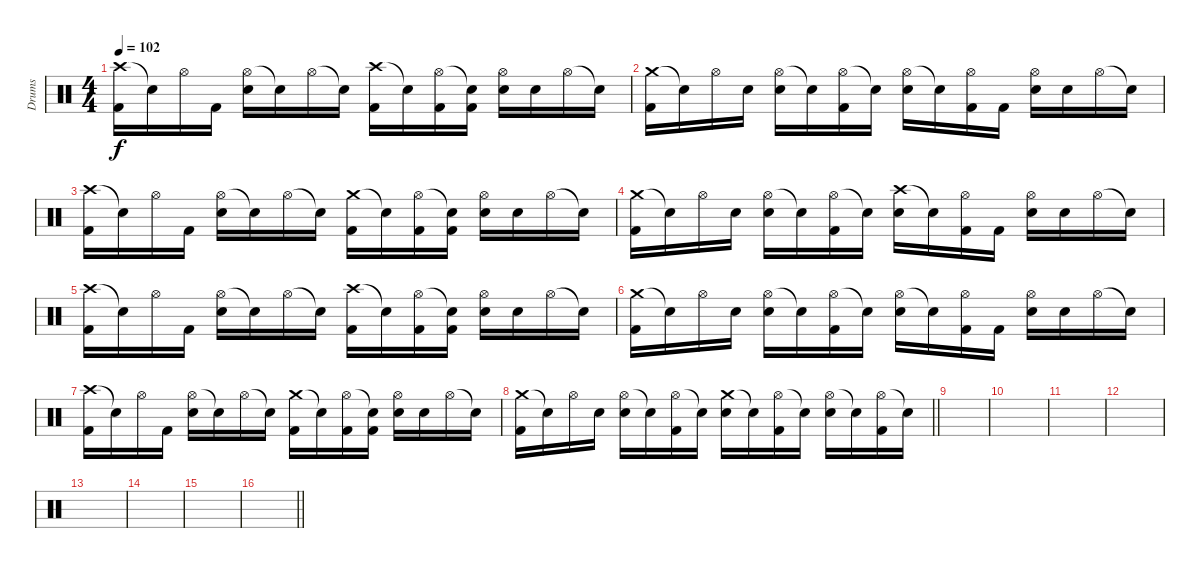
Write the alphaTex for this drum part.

\track ("Drums" "Drums") {instrument percussion}
\staff {score}
\articulation defaults
\ts (4 4)
\section ("" "")
\tempo 102
\clef neutral
\ks c
("Crash high (hit)" "Kick (hit) 2").16{dy f} "Snare (hit)"{t}.16 "Hi-Hat (open)".16 "Kick (hit) 2".16 ("Hi-Hat (open)" "Electric Snare (hit)").16 "Snare (hit)"{t}.16 "Hi-Hat (open)".16 "Snare (hit)"{t}.16 ("Crash high (hit)" "Kick (hit) 2").16 "Snare (hit)"{t}.16 ("Hi-Hat (open)" "Kick (hit) 2").16 ("Snare (hit)"{t} "Kick (hit) 2").16 ("Hi-Hat (open)" "Electric Snare (hit)").16 "Electric Snare (hit)".16 "Hi-Hat (open)".16 "Snare (hit)"{t}.16 |
("Crash medium (hit)" "Kick (hit) 2").16 "Snare (hit)"{t}.16 "Hi-Hat (open)".16 "Electric Snare (hit)".16 ("Hi-Hat (open)" "Electric Snare (hit)").16 "Snare (hit)"{t}.16 ("Hi-Hat (open)" "Kick (hit) 2").16 "Snare (hit)"{t}.16 ("Hi-Hat (open)" "Electric Snare (hit)").16 "Snare (hit)"{t}.16 ("Hi-Hat (open)" "Kick (hit) 2").16 "Kick (hit) 2".16 ("Hi-Hat (open)" "Electric Snare (hit)").16 "Electric Snare (hit)".16 "Hi-Hat (open)".16 "Snare (hit)"{t}.16 |
("Crash high (hit)" "Kick (hit) 2").16 "Snare (hit)"{t}.16 "Hi-Hat (open)".16 "Kick (hit) 2".16 ("Hi-Hat (open)" "Electric Snare (hit)").16 "Snare (hit)"{t}.16 "Hi-Hat (open)".16 "Snare (hit)"{t}.16 ("Crash medium (hit)" "Kick (hit) 2").16 "Snare (hit)"{t}.16 ("Hi-Hat (open)" "Kick (hit) 2").16 ("Snare (hit)"{t} "Kick (hit) 2").16 ("Hi-Hat (open)" "Electric Snare (hit)").16 "Electric Snare (hit)".16 "Hi-Hat (open)".16 "Snare (hit)"{t}.16 |
("Crash medium (hit)" "Kick (hit) 2").16 "Snare (hit)"{t}.16 "Hi-Hat (open)".16 "Electric Snare (hit)".16 ("Hi-Hat (open)" "Electric Snare (hit)").16 "Snare (hit)"{t}.16 ("Hi-Hat (open)" "Kick (hit) 2").16 "Snare (hit)"{t}.16 ("Crash high (hit)" "Electric Snare (hit)").16 "Snare (hit)"{t}.16 ("Hi-Hat (open)" "Kick (hit) 2").16 "Kick (hit) 2".16 ("Hi-Hat (open)" "Electric Snare (hit)").16 "Electric Snare (hit)".16 "Hi-Hat (open)".16 "Snare (hit)"{t}.16 |
("Crash high (hit)" "Kick (hit) 2").16 "Snare (hit)"{t}.16 "Hi-Hat (open)".16 "Kick (hit) 2".16 ("Hi-Hat (open)" "Electric Snare (hit)").16 "Snare (hit)"{t}.16 "Hi-Hat (open)".16 "Snare (hit)"{t}.16 ("Crash high (hit)" "Kick (hit) 2").16 "Snare (hit)"{t}.16 ("Hi-Hat (open)" "Kick (hit) 2").16 ("Snare (hit)"{t} "Kick (hit) 2").16 ("Hi-Hat (open)" "Electric Snare (hit)").16 "Electric Snare (hit)".16 "Hi-Hat (open)".16 "Snare (hit)"{t}.16 |
("Crash medium (hit)" "Kick (hit) 2").16 "Snare (hit)"{t}.16 "Hi-Hat (open)".16 "Electric Snare (hit)".16 ("Hi-Hat (open)" "Electric Snare (hit)").16 "Snare (hit)"{t}.16 ("Hi-Hat (open)" "Kick (hit) 2").16 "Snare (hit)"{t}.16 ("Hi-Hat (open)" "Electric Snare (hit)").16 "Snare (hit)"{t}.16 ("Hi-Hat (open)" "Kick (hit) 2").16 "Kick (hit) 2".16 ("Hi-Hat (open)" "Electric Snare (hit)").16 "Electric Snare (hit)".16 "Hi-Hat (open)".16 "Snare (hit)"{t}.16 |
("Crash high (hit)" "Kick (hit) 2").16 "Snare (hit)"{t}.16 "Hi-Hat (open)".16 "Kick (hit) 2".16 ("Hi-Hat (open)" "Electric Snare (hit)").16 "Snare (hit)"{t}.16 "Hi-Hat (open)".16 "Snare (hit)"{t}.16 ("Crash medium (hit)" "Kick (hit) 2").16 "Snare (hit)"{t}.16 ("Hi-Hat (open)" "Kick (hit) 2").16 ("Snare (hit)"{t} "Kick (hit) 2").16 ("Hi-Hat (open)" "Electric Snare (hit)").16 "Electric Snare (hit)".16 "Hi-Hat (open)".16 "Snare (hit)"{t}.16 |
\barLineRight lightlight
("Crash medium (hit)" "Kick (hit) 2").16 "Snare (hit)"{t}.16 "Hi-Hat (open)".16 "Electric Snare (hit)".16 ("Hi-Hat (open)" "Electric Snare (hit)").16 "Snare (hit)"{t}.16 ("Hi-Hat (open)" "Kick (hit) 2").16 "Snare (hit)"{t}.16 ("Crash medium (hit)" "Electric Snare (hit)").16 "Snare (hit)"{t}.16 ("Hi-Hat (open)" "Kick (hit) 2").16 "Snare (hit)"{t}.16 ("Hi-Hat (open)" "Electric Snare (hit)").16 "Snare (hit)"{t}.16 ("Hi-Hat (open)" "Kick (hit) 2").16 "Snare (hit)"{t}.16 |
\section ("" "")
|
|
|
|
|
|
|
\barLineRight lightlight
